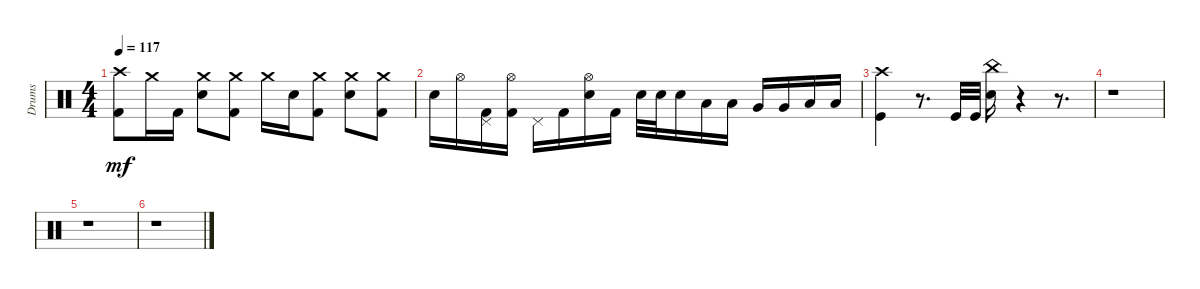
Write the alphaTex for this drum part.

\track ("Drums" "Drums") {instrument percussion}
\staff {score}
\articulation defaults
\ts (4 4)
\tempo 117
\clef neutral
\ks aminor
("Kick (hit) 2" "Crash high (hit)").8{dy mf} "Crash medium (hit)".16 "Kick (hit) 2".16 ("Crash medium (hit)" "Snare (hit) 2").8 ("Crash medium (hit)" "Kick (hit) 2").8 "Crash medium (hit)".16 "Snare (hit) 2".16 ("Kick (hit) 2" "Crash medium (hit)").8 ("Crash medium (hit)" "Snare (hit) 2").8 ("Crash medium (hit)" "Kick (hit) 2").8 |
"Snare (hit) 2".16 "Hi-Hat (open)".16 ("Pedal Hi-Hat (hit)" "Kick (hit) 2").16 ("Kick (hit) 2" "Hi-Hat (open)").16 "Pedal Hi-Hat (hit)".16 "Kick (hit) 2".16 ("Hi-Hat (open)" "Snare (hit) 2").16 "Kick (hit) 2".16 "Snare (hit) 2".32 "Snare (hit) 2".32 "Snare (hit) 2".16 "Low Tom (hit)".16 "Low Tom (hit)".16 "Very Low Tom (hit)".16 "Very Low Tom (hit)".16 "Low Floor Tom (hit)".16 "Low Floor Tom (hit)".16 |
("Crash high (hit)" "Kick (hit)").4 r.8{d} "Kick (hit)".32 "Kick (hit)".32 ("China (hit)" "Snare (hit) 2").16 r.4 r.8{d} |
r.1 |
r.1 |
r.1
